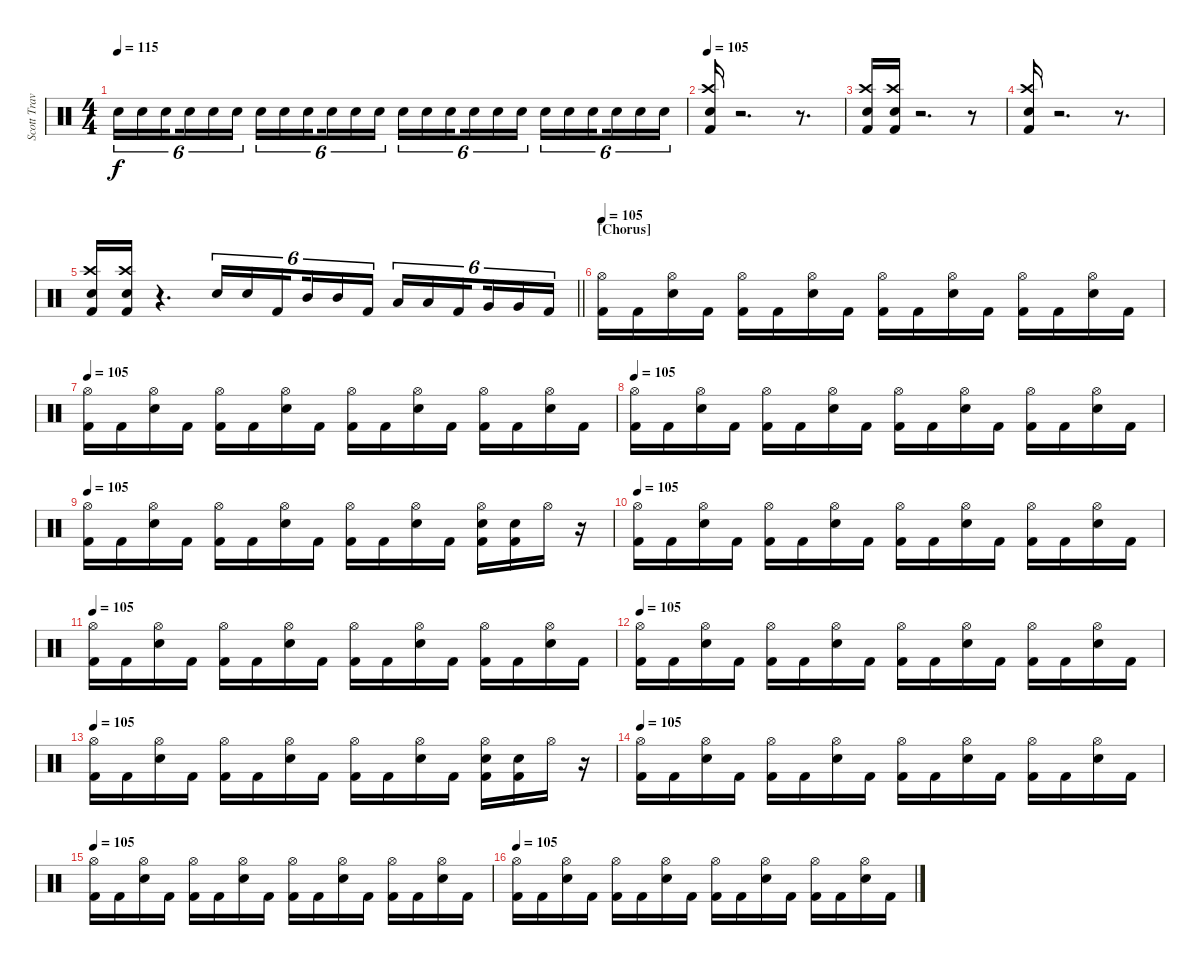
\track ("Scott Travis" "Scott Trav") {instrument percussion}
\staff {score}
\articulation defaults
\ts (4 4)
\tempo 115
\clef neutral
\ks c "Snare (hit) 2".16{tu (6 4) dy f} "Snare (hit) 2".16{tu (6 4)} "Snare (hit) 2".16{tu (6 4) beam splitsecondary} "Snare (hit) 2".16{tu (6 4)} "Snare (hit) 2".16{tu (6 4)} "Snare (hit) 2".16{tu (6 4)} "Snare (hit) 2".16{tu (6 4)} "Snare (hit) 2".16{tu (6 4)} "Snare (hit) 2".16{tu (6 4) beam splitsecondary} "Snare (hit) 2".16{tu (6 4)} "Snare (hit) 2".16{tu (6 4)} "Snare (hit) 2".16{tu (6 4)} "Snare (hit) 2".16{tu (6 4)} "Snare (hit) 2".16{tu (6 4)} "Snare (hit) 2".16{tu (6 4) beam splitsecondary} "Snare (hit) 2".16{tu (6 4)} "Snare (hit) 2".16{tu (6 4)} "Snare (hit) 2".16{tu (6 4)} "Snare (hit) 2".16{tu (6 4)} "Snare (hit) 2".16{tu (6 4)} "Snare (hit) 2".16{tu (6 4) beam splitsecondary} "Snare (hit) 2".16{tu (6 4)} "Snare (hit) 2".16{tu (6 4)} "Snare (hit) 2".16{tu (6 4)}
|
\tempo 105
("Snare (hit) 2" "Crash high (hit)" "Kick (hit) 2").16 r.2{d} r.8{d} |
("Crash high (hit)" "Kick (hit) 2" "Snare (hit) 2").16 ("Crash high (hit)" "Kick (hit) 2" "Snare (hit) 2").16 r.2{d} r.8 |
("Snare (hit) 2" "Crash high (hit)" "Kick (hit) 2").16 r.2{d} r.8{d} |
\barLineRight lightlight
("Crash high (hit)" "Kick (hit) 2" "Snare (hit) 2").16 ("Crash high (hit)" "Kick (hit) 2" "Snare (hit) 2").16 r.4{d} "Snare (hit) 2".16{tu (6 4)} "Snare (hit) 2".16{tu (6 4)} "Kick (hit) 2".16{tu (6 4) beam splitsecondary} "Mid Tom (hit)".16{tu (6 4)} "Mid Tom (hit)".16{tu (6 4)} "Kick (hit) 2".16{tu (6 4)} "Low Tom (hit)".16{tu (6 4)} "Low Tom (hit)".16{tu (6 4)} "Kick (hit) 2".16{tu (6 4) beam splitsecondary} "Very Low Tom (hit)".16{tu (6 4)} "Very Low Tom (hit)".16{tu (6 4)} "Kick (hit) 2".16{tu (6 4)} |
\section ("" "[Chorus]")
\tempo 105
("Hi-Hat (open)" "Kick (hit) 2").16 "Kick (hit) 2".16 ("Hi-Hat (open)" "Snare (hit) 2").16 "Kick (hit) 2".16 ("Hi-Hat (open)" "Kick (hit) 2").16 "Kick (hit) 2".16 ("Hi-Hat (open)" "Snare (hit) 2").16 "Kick (hit) 2".16 ("Hi-Hat (open)" "Kick (hit) 2").16 "Kick (hit) 2".16 ("Hi-Hat (open)" "Snare (hit) 2").16 "Kick (hit) 2".16 ("Hi-Hat (open)" "Kick (hit) 2").16 "Kick (hit) 2".16 ("Hi-Hat (open)" "Snare (hit) 2").16 "Kick (hit) 2".16 |
\tempo 105
("Hi-Hat (open)" "Kick (hit) 2").16 "Kick (hit) 2".16 ("Hi-Hat (open)" "Snare (hit) 2").16 "Kick (hit) 2".16 ("Hi-Hat (open)" "Kick (hit) 2").16 "Kick (hit) 2".16 ("Hi-Hat (open)" "Snare (hit) 2").16 "Kick (hit) 2".16 ("Hi-Hat (open)" "Kick (hit) 2").16 "Kick (hit) 2".16 ("Hi-Hat (open)" "Snare (hit) 2").16 "Kick (hit) 2".16 ("Hi-Hat (open)" "Kick (hit) 2").16 "Kick (hit) 2".16 ("Hi-Hat (open)" "Snare (hit) 2").16 "Kick (hit) 2".16 |
\tempo 105
("Hi-Hat (open)" "Kick (hit) 2").16 "Kick (hit) 2".16 ("Hi-Hat (open)" "Snare (hit) 2").16 "Kick (hit) 2".16 ("Hi-Hat (open)" "Kick (hit) 2").16 "Kick (hit) 2".16 ("Hi-Hat (open)" "Snare (hit) 2").16 "Kick (hit) 2".16 ("Hi-Hat (open)" "Kick (hit) 2").16 "Kick (hit) 2".16 ("Hi-Hat (open)" "Snare (hit) 2").16 "Kick (hit) 2".16 ("Hi-Hat (open)" "Kick (hit) 2").16 "Kick (hit) 2".16 ("Hi-Hat (open)" "Snare (hit) 2").16 "Kick (hit) 2".16 |
\tempo 105
("Hi-Hat (open)" "Kick (hit) 2").16 "Kick (hit) 2".16 ("Hi-Hat (open)" "Snare (hit) 2").16 "Kick (hit) 2".16 ("Hi-Hat (open)" "Kick (hit) 2").16 "Kick (hit) 2".16 ("Hi-Hat (open)" "Snare (hit) 2").16 "Kick (hit) 2".16 ("Hi-Hat (open)" "Kick (hit) 2").16 "Kick (hit) 2".16 ("Hi-Hat (open)" "Snare (hit) 2").16 "Kick (hit) 2".16 ("Hi-Hat (open)" "Snare (hit) 2" "Kick (hit) 2").16 ("Snare (hit) 2" "Kick (hit) 2").16 "Hi-Hat (open)".16 r.16 |
\tempo 105
("Hi-Hat (open)" "Kick (hit) 2").16 "Kick (hit) 2".16 ("Hi-Hat (open)" "Snare (hit) 2").16 "Kick (hit) 2".16 ("Hi-Hat (open)" "Kick (hit) 2").16 "Kick (hit) 2".16 ("Hi-Hat (open)" "Snare (hit) 2").16 "Kick (hit) 2".16 ("Hi-Hat (open)" "Kick (hit) 2").16 "Kick (hit) 2".16 ("Hi-Hat (open)" "Snare (hit) 2").16 "Kick (hit) 2".16 ("Hi-Hat (open)" "Kick (hit) 2").16 "Kick (hit) 2".16 ("Hi-Hat (open)" "Snare (hit) 2").16 "Kick (hit) 2".16 |
\tempo 105
("Hi-Hat (open)" "Kick (hit) 2").16 "Kick (hit) 2".16 ("Hi-Hat (open)" "Snare (hit) 2").16 "Kick (hit) 2".16 ("Hi-Hat (open)" "Kick (hit) 2").16 "Kick (hit) 2".16 ("Hi-Hat (open)" "Snare (hit) 2").16 "Kick (hit) 2".16 ("Hi-Hat (open)" "Kick (hit) 2").16 "Kick (hit) 2".16 ("Hi-Hat (open)" "Snare (hit) 2").16 "Kick (hit) 2".16 ("Hi-Hat (open)" "Kick (hit) 2").16 "Kick (hit) 2".16 ("Hi-Hat (open)" "Snare (hit) 2").16 "Kick (hit) 2".16 |
\tempo 105
("Hi-Hat (open)" "Kick (hit) 2").16 "Kick (hit) 2".16 ("Hi-Hat (open)" "Snare (hit) 2").16 "Kick (hit) 2".16 ("Hi-Hat (open)" "Kick (hit) 2").16 "Kick (hit) 2".16 ("Hi-Hat (open)" "Snare (hit) 2").16 "Kick (hit) 2".16 ("Hi-Hat (open)" "Kick (hit) 2").16 "Kick (hit) 2".16 ("Hi-Hat (open)" "Snare (hit) 2").16 "Kick (hit) 2".16 ("Hi-Hat (open)" "Kick (hit) 2").16 "Kick (hit) 2".16 ("Hi-Hat (open)" "Snare (hit) 2").16 "Kick (hit) 2".16 |
\tempo 105
("Hi-Hat (open)" "Kick (hit) 2").16 "Kick (hit) 2".16 ("Hi-Hat (open)" "Snare (hit) 2").16 "Kick (hit) 2".16 ("Hi-Hat (open)" "Kick (hit) 2").16 "Kick (hit) 2".16 ("Hi-Hat (open)" "Snare (hit) 2").16 "Kick (hit) 2".16 ("Hi-Hat (open)" "Kick (hit) 2").16 "Kick (hit) 2".16 ("Hi-Hat (open)" "Snare (hit) 2").16 "Kick (hit) 2".16 ("Hi-Hat (open)" "Snare (hit) 2" "Kick (hit) 2").16 ("Snare (hit) 2" "Kick (hit) 2").16 "Hi-Hat (open)".16 r.16 |
\tempo 105
("Hi-Hat (open)" "Kick (hit) 2").16 "Kick (hit) 2".16 ("Hi-Hat (open)" "Snare (hit) 2").16 "Kick (hit) 2".16 ("Hi-Hat (open)" "Kick (hit) 2").16 "Kick (hit) 2".16 ("Hi-Hat (open)" "Snare (hit) 2").16 "Kick (hit) 2".16 ("Hi-Hat (open)" "Kick (hit) 2").16 "Kick (hit) 2".16 ("Hi-Hat (open)" "Snare (hit) 2").16 "Kick (hit) 2".16 ("Hi-Hat (open)" "Kick (hit) 2").16 "Kick (hit) 2".16 ("Hi-Hat (open)" "Snare (hit) 2").16 "Kick (hit) 2".16 |
\tempo 105
("Hi-Hat (open)" "Kick (hit) 2").16 "Kick (hit) 2".16 ("Hi-Hat (open)" "Snare (hit) 2").16 "Kick (hit) 2".16 ("Hi-Hat (open)" "Kick (hit) 2").16 "Kick (hit) 2".16 ("Hi-Hat (open)" "Snare (hit) 2").16 "Kick (hit) 2".16 ("Hi-Hat (open)" "Kick (hit) 2").16 "Kick (hit) 2".16 ("Hi-Hat (open)" "Snare (hit) 2").16 "Kick (hit) 2".16 ("Hi-Hat (open)" "Kick (hit) 2").16 "Kick (hit) 2".16 ("Hi-Hat (open)" "Snare (hit) 2").16 "Kick (hit) 2".16 |
\tempo 105
("Hi-Hat (open)" "Kick (hit) 2").16 "Kick (hit) 2".16 ("Hi-Hat (open)" "Snare (hit) 2").16 "Kick (hit) 2".16 ("Hi-Hat (open)" "Kick (hit) 2").16 "Kick (hit) 2".16 ("Hi-Hat (open)" "Snare (hit) 2").16 "Kick (hit) 2".16 ("Hi-Hat (open)" "Kick (hit) 2").16 "Kick (hit) 2".16 ("Hi-Hat (open)" "Snare (hit) 2").16 "Kick (hit) 2".16 ("Hi-Hat (open)" "Kick (hit) 2").16 "Kick (hit) 2".16 ("Hi-Hat (open)" "Snare (hit) 2").16 "Kick (hit) 2".16
